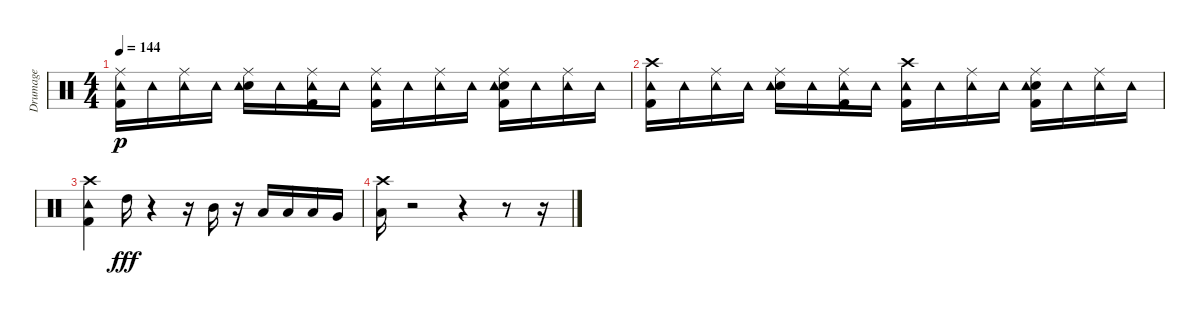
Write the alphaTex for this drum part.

\track ("Drumage" "Drumage") {instrument percussion}
\staff {score}
\articulation defaults
\ts (4 4)
\tempo 144
\clef neutral
\ks c
("Ride (middle)" "Kick (hit) 2" "Tambourine (hit)").16{dy p} "Tambourine (hit)".16 ("Ride (middle)" "Tambourine (hit)").16 "Tambourine (hit)".16 ("Ride (middle)" "Electric Snare (hit)" "Tambourine (hit)").16 "Tambourine (hit)".16 ("Ride (middle)" "Kick (hit) 2" "Tambourine (hit)").16 "Tambourine (hit)".16 ("Ride (middle)" "Kick (hit) 2" "Tambourine (hit)").16 "Tambourine (hit)".16 ("Ride (middle)" "Tambourine (hit)").16 "Tambourine (hit)".16 ("Ride (middle)" "Electric Snare (hit)" "Kick (hit) 2" "Tambourine (hit)").16 "Tambourine (hit)".16 ("Ride (middle)" "Tambourine (hit)").16 "Tambourine (hit)".16 |
("Crash high (hit)" "Kick (hit) 2" "Tambourine (hit)").16 "Tambourine (hit)".16 ("Ride (middle)" "Tambourine (hit)").16 "Tambourine (hit)".16 ("Ride (middle)" "Electric Snare (hit)" "Tambourine (hit)").16 "Tambourine (hit)".16 ("Ride (middle)" "Kick (hit) 2" "Tambourine (hit)").16 "Tambourine (hit)".16 ("Crash high (hit)" "Kick (hit) 2" "Tambourine (hit)").16 "Tambourine (hit)".16 ("Ride (middle)" "Tambourine (hit)").16 "Tambourine (hit)".16 ("Ride (middle)" "Electric Snare (hit)" "Kick (hit) 2" "Tambourine (hit)").16 "Tambourine (hit)".16 ("Ride (middle)" "Tambourine (hit)").16 "Tambourine (hit)".16 |
("Crash high (hit)" "Kick (hit) 2" "Tambourine (hit)").4 "High Tom (hit)".16{dy fff} r.4 r.16 "Mid Tom (hit)".16 r.16 "Low Tom (hit)".16 "Low Tom (hit)".16 "Low Tom (hit)".16 "Very Low Tom (hit)".16 |
("Crash high (hit)" "Low Floor Tom (hit)").16 r.2 r.4 r.8 r.16
